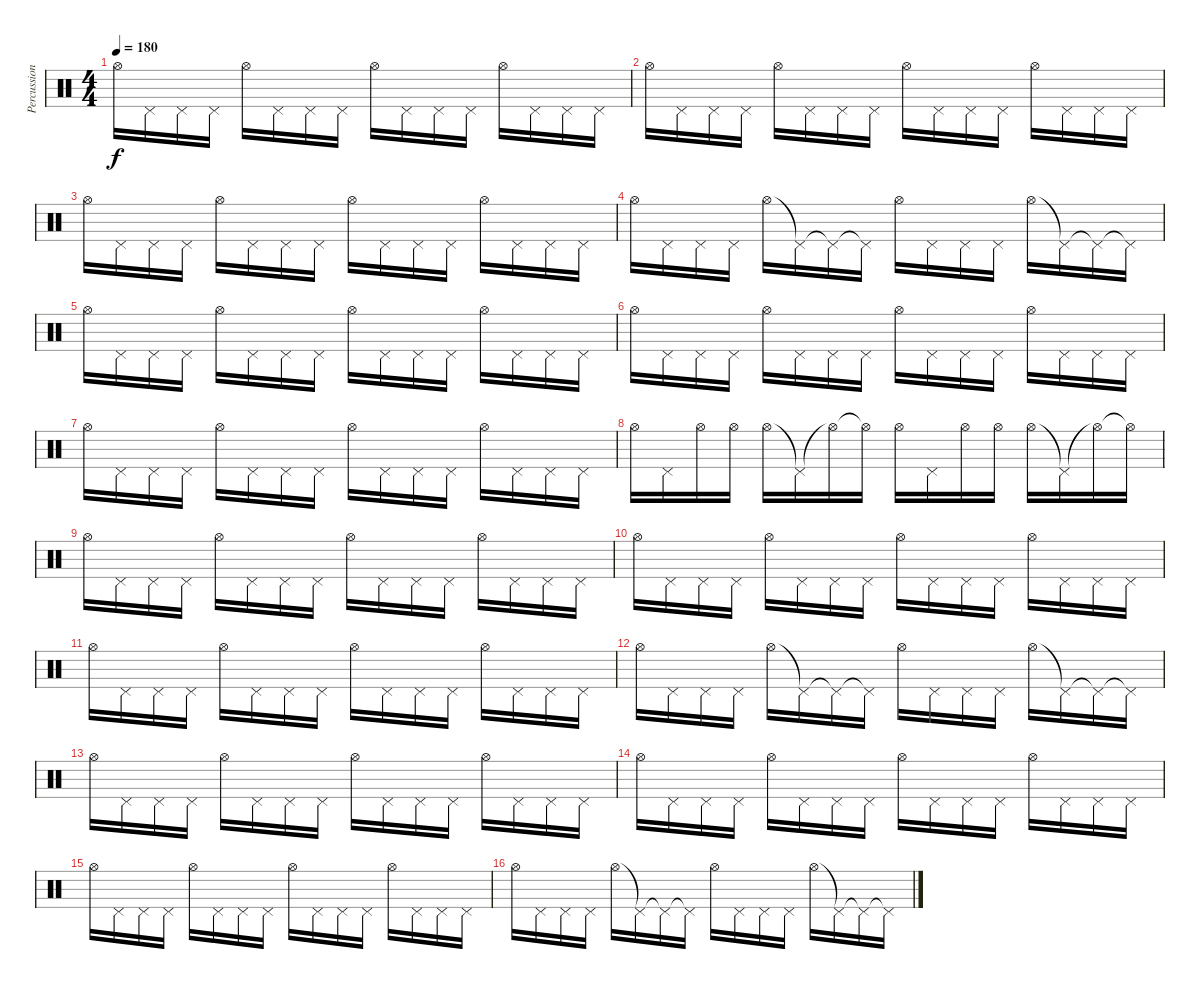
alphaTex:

\track ("Percussion" "Percussion") {instrument percussion}
\staff {score}
\articulation defaults
\ts (4 4)
\tempo 180
\tempo 150
\tempo 180
\clef neutral
\ks c "Hi-Hat (open)".16{dy f} "Pedal Hi-Hat (hit)".16 "Pedal Hi-Hat (hit)".16 "Pedal Hi-Hat (hit)".16 "Hi-Hat (open)".16 "Pedal Hi-Hat (hit)".16 "Pedal Hi-Hat (hit)".16 "Pedal Hi-Hat (hit)".16 "Hi-Hat (open)".16 "Pedal Hi-Hat (hit)".16 "Pedal Hi-Hat (hit)".16 "Pedal Hi-Hat (hit)".16 "Hi-Hat (open)".16 "Pedal Hi-Hat (hit)".16 "Pedal Hi-Hat (hit)".16 "Pedal Hi-Hat (hit)".16
|
"Hi-Hat (open)".16 "Pedal Hi-Hat (hit)".16 "Pedal Hi-Hat (hit)".16 "Pedal Hi-Hat (hit)".16 "Hi-Hat (open)".16 "Pedal Hi-Hat (hit)".16 "Pedal Hi-Hat (hit)".16 "Pedal Hi-Hat (hit)".16 "Hi-Hat (open)".16 "Pedal Hi-Hat (hit)".16 "Pedal Hi-Hat (hit)".16 "Pedal Hi-Hat (hit)".16 "Hi-Hat (open)".16 "Pedal Hi-Hat (hit)".16 "Pedal Hi-Hat (hit)".16 "Pedal Hi-Hat (hit)".16 |
"Hi-Hat (open)".16 "Pedal Hi-Hat (hit)".16 "Pedal Hi-Hat (hit)".16 "Pedal Hi-Hat (hit)".16 "Hi-Hat (open)".16 "Pedal Hi-Hat (hit)".16 "Pedal Hi-Hat (hit)".16 "Pedal Hi-Hat (hit)".16 "Hi-Hat (open)".16 "Pedal Hi-Hat (hit)".16 "Pedal Hi-Hat (hit)".16 "Pedal Hi-Hat (hit)".16 "Hi-Hat (open)".16 "Pedal Hi-Hat (hit)".16 "Pedal Hi-Hat (hit)".16 "Pedal Hi-Hat (hit)".16 |
"Hi-Hat (open)".16 "Pedal Hi-Hat (hit)".16 "Pedal Hi-Hat (hit)".16 "Pedal Hi-Hat (hit)".16 "Hi-Hat (open)".16 "Pedal Hi-Hat (hit)"{t}.16 "Pedal Hi-Hat (hit)"{t}.16 "Pedal Hi-Hat (hit)"{t}.16 "Hi-Hat (open)".16 "Pedal Hi-Hat (hit)".16 "Pedal Hi-Hat (hit)".16 "Pedal Hi-Hat (hit)".16 "Hi-Hat (open)".16 "Pedal Hi-Hat (hit)"{t}.16 "Pedal Hi-Hat (hit)"{t}.16 "Pedal Hi-Hat (hit)"{t}.16 |
"Hi-Hat (open)".16 "Pedal Hi-Hat (hit)".16 "Pedal Hi-Hat (hit)".16 "Pedal Hi-Hat (hit)".16 "Hi-Hat (open)".16 "Pedal Hi-Hat (hit)".16 "Pedal Hi-Hat (hit)".16 "Pedal Hi-Hat (hit)".16 "Hi-Hat (open)".16 "Pedal Hi-Hat (hit)".16 "Pedal Hi-Hat (hit)".16 "Pedal Hi-Hat (hit)".16 "Hi-Hat (open)".16 "Pedal Hi-Hat (hit)".16 "Pedal Hi-Hat (hit)".16 "Pedal Hi-Hat (hit)".16 |
"Hi-Hat (open)".16 "Pedal Hi-Hat (hit)".16 "Pedal Hi-Hat (hit)".16 "Pedal Hi-Hat (hit)".16 "Hi-Hat (open)".16 "Pedal Hi-Hat (hit)".16 "Pedal Hi-Hat (hit)".16 "Pedal Hi-Hat (hit)".16 "Hi-Hat (open)".16 "Pedal Hi-Hat (hit)".16 "Pedal Hi-Hat (hit)".16 "Pedal Hi-Hat (hit)".16 "Hi-Hat (open)".16 "Pedal Hi-Hat (hit)".16 "Pedal Hi-Hat (hit)".16 "Pedal Hi-Hat (hit)".16 |
"Hi-Hat (open)".16 "Pedal Hi-Hat (hit)".16 "Pedal Hi-Hat (hit)".16 "Pedal Hi-Hat (hit)".16 "Hi-Hat (open)".16 "Pedal Hi-Hat (hit)".16 "Pedal Hi-Hat (hit)".16 "Pedal Hi-Hat (hit)".16 "Hi-Hat (open)".16 "Pedal Hi-Hat (hit)".16 "Pedal Hi-Hat (hit)".16 "Pedal Hi-Hat (hit)".16 "Hi-Hat (open)".16 "Pedal Hi-Hat (hit)".16 "Pedal Hi-Hat (hit)".16 "Pedal Hi-Hat (hit)".16 |
"Hi-Hat (open)".16 "Pedal Hi-Hat (hit)".16 "Hi-Hat (open)".16 "Hi-Hat (open)".16 "Hi-Hat (open)".16 "Pedal Hi-Hat (hit)"{t}.16 "Hi-Hat (open)"{t}.16 "Hi-Hat (open)"{t}.16 "Hi-Hat (open)".16 "Pedal Hi-Hat (hit)".16 "Hi-Hat (open)".16 "Hi-Hat (open)".16 "Hi-Hat (open)".16 "Pedal Hi-Hat (hit)"{t}.16 "Hi-Hat (open)"{t}.16 "Hi-Hat (open)"{t}.16 |
"Hi-Hat (open)".16 "Pedal Hi-Hat (hit)".16 "Pedal Hi-Hat (hit)".16 "Pedal Hi-Hat (hit)".16 "Hi-Hat (open)".16 "Pedal Hi-Hat (hit)".16 "Pedal Hi-Hat (hit)".16 "Pedal Hi-Hat (hit)".16 "Hi-Hat (open)".16 "Pedal Hi-Hat (hit)".16 "Pedal Hi-Hat (hit)".16 "Pedal Hi-Hat (hit)".16 "Hi-Hat (open)".16 "Pedal Hi-Hat (hit)".16 "Pedal Hi-Hat (hit)".16 "Pedal Hi-Hat (hit)".16 |
"Hi-Hat (open)".16 "Pedal Hi-Hat (hit)".16 "Pedal Hi-Hat (hit)".16 "Pedal Hi-Hat (hit)".16 "Hi-Hat (open)".16 "Pedal Hi-Hat (hit)".16 "Pedal Hi-Hat (hit)".16 "Pedal Hi-Hat (hit)".16 "Hi-Hat (open)".16 "Pedal Hi-Hat (hit)".16 "Pedal Hi-Hat (hit)".16 "Pedal Hi-Hat (hit)".16 "Hi-Hat (open)".16 "Pedal Hi-Hat (hit)".16 "Pedal Hi-Hat (hit)".16 "Pedal Hi-Hat (hit)".16 |
"Hi-Hat (open)".16 "Pedal Hi-Hat (hit)".16 "Pedal Hi-Hat (hit)".16 "Pedal Hi-Hat (hit)".16 "Hi-Hat (open)".16 "Pedal Hi-Hat (hit)".16 "Pedal Hi-Hat (hit)".16 "Pedal Hi-Hat (hit)".16 "Hi-Hat (open)".16 "Pedal Hi-Hat (hit)".16 "Pedal Hi-Hat (hit)".16 "Pedal Hi-Hat (hit)".16 "Hi-Hat (open)".16 "Pedal Hi-Hat (hit)".16 "Pedal Hi-Hat (hit)".16 "Pedal Hi-Hat (hit)".16 |
"Hi-Hat (open)".16 "Pedal Hi-Hat (hit)".16 "Pedal Hi-Hat (hit)".16 "Pedal Hi-Hat (hit)".16 "Hi-Hat (open)".16 "Pedal Hi-Hat (hit)"{t}.16 "Pedal Hi-Hat (hit)"{t}.16 "Pedal Hi-Hat (hit)"{t}.16 "Hi-Hat (open)".16 "Pedal Hi-Hat (hit)".16 "Pedal Hi-Hat (hit)".16 "Pedal Hi-Hat (hit)".16 "Hi-Hat (open)".16 "Pedal Hi-Hat (hit)"{t}.16 "Pedal Hi-Hat (hit)"{t}.16 "Pedal Hi-Hat (hit)"{t}.16 |
"Hi-Hat (open)".16 "Pedal Hi-Hat (hit)".16 "Pedal Hi-Hat (hit)".16 "Pedal Hi-Hat (hit)".16 "Hi-Hat (open)".16 "Pedal Hi-Hat (hit)".16 "Pedal Hi-Hat (hit)".16 "Pedal Hi-Hat (hit)".16 "Hi-Hat (open)".16 "Pedal Hi-Hat (hit)".16 "Pedal Hi-Hat (hit)".16 "Pedal Hi-Hat (hit)".16 "Hi-Hat (open)".16 "Pedal Hi-Hat (hit)".16 "Pedal Hi-Hat (hit)".16 "Pedal Hi-Hat (hit)".16 |
"Hi-Hat (open)".16 "Pedal Hi-Hat (hit)".16 "Pedal Hi-Hat (hit)".16 "Pedal Hi-Hat (hit)".16 "Hi-Hat (open)".16 "Pedal Hi-Hat (hit)".16 "Pedal Hi-Hat (hit)".16 "Pedal Hi-Hat (hit)".16 "Hi-Hat (open)".16 "Pedal Hi-Hat (hit)".16 "Pedal Hi-Hat (hit)".16 "Pedal Hi-Hat (hit)".16 "Hi-Hat (open)".16 "Pedal Hi-Hat (hit)".16 "Pedal Hi-Hat (hit)".16 "Pedal Hi-Hat (hit)".16 |
"Hi-Hat (open)".16 "Pedal Hi-Hat (hit)".16 "Pedal Hi-Hat (hit)".16 "Pedal Hi-Hat (hit)".16 "Hi-Hat (open)".16 "Pedal Hi-Hat (hit)".16 "Pedal Hi-Hat (hit)".16 "Pedal Hi-Hat (hit)".16 "Hi-Hat (open)".16 "Pedal Hi-Hat (hit)".16 "Pedal Hi-Hat (hit)".16 "Pedal Hi-Hat (hit)".16 "Hi-Hat (open)".16 "Pedal Hi-Hat (hit)".16 "Pedal Hi-Hat (hit)".16 "Pedal Hi-Hat (hit)".16 |
"Hi-Hat (open)".16 "Pedal Hi-Hat (hit)".16 "Pedal Hi-Hat (hit)".16 "Pedal Hi-Hat (hit)".16 "Hi-Hat (open)".16 "Pedal Hi-Hat (hit)"{t}.16 "Pedal Hi-Hat (hit)"{t}.16 "Pedal Hi-Hat (hit)"{t}.16 "Hi-Hat (open)".16 "Pedal Hi-Hat (hit)".16 "Pedal Hi-Hat (hit)".16 "Pedal Hi-Hat (hit)".16 "Hi-Hat (open)".16 "Pedal Hi-Hat (hit)"{t}.16 "Pedal Hi-Hat (hit)"{t}.16 "Pedal Hi-Hat (hit)"{t}.16
